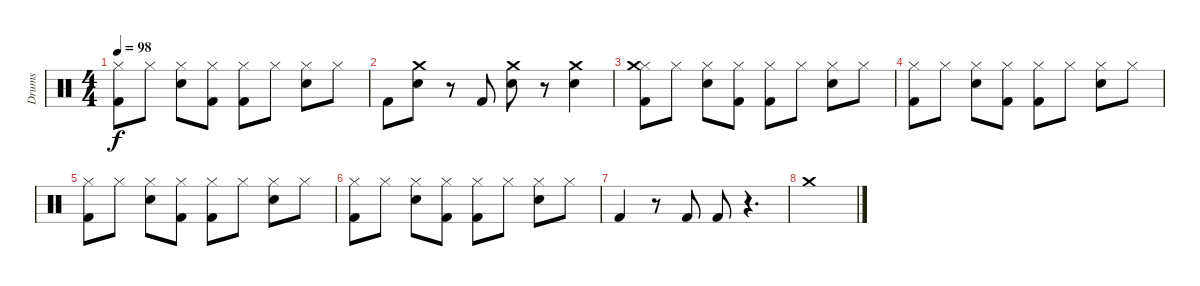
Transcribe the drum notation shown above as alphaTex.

\track ("Drums" "Drums") {instrument percussion}
\staff {score}
\articulation defaults
\ts (4 4)
\tempo 98
\clef neutral
\ks c
("Hi-Hat (closed)" "Kick (hit) 2").8{dy f} "Hi-Hat (closed)".8 ("Hi-Hat (closed)" "Electric Snare (hit)").8 ("Hi-Hat (closed)" "Kick (hit) 2").8 ("Hi-Hat (closed)" "Kick (hit) 2").8 "Hi-Hat (closed)".8 ("Hi-Hat (closed)" "Electric Snare (hit)").8 "Hi-Hat (closed)".8 |
"Kick (hit) 2".8 ("Crash medium (hit)" "Electric Snare (hit)").8 r.8 "Kick (hit) 2".8 ("Crash medium (hit)" "Electric Snare (hit)").8 r.8 ("Crash medium (hit)" "Electric Snare (hit)").4 |
("Hi-Hat (closed)" "Crash medium (hit)" "Kick (hit) 2").8 "Hi-Hat (closed)".8 ("Hi-Hat (closed)" "Electric Snare (hit)").8 ("Hi-Hat (closed)" "Kick (hit) 2").8 ("Hi-Hat (closed)" "Kick (hit) 2").8 "Hi-Hat (closed)".8 ("Hi-Hat (closed)" "Electric Snare (hit)").8 "Hi-Hat (closed)".8 |
("Hi-Hat (closed)" "Kick (hit) 2").8 "Hi-Hat (closed)".8 ("Hi-Hat (closed)" "Electric Snare (hit)").8 ("Hi-Hat (closed)" "Kick (hit) 2").8 ("Hi-Hat (closed)" "Kick (hit) 2").8 "Hi-Hat (closed)".8 ("Hi-Hat (closed)" "Electric Snare (hit)").8 "Hi-Hat (closed)".8 |
("Hi-Hat (closed)" "Kick (hit) 2").8 "Hi-Hat (closed)".8 ("Hi-Hat (closed)" "Electric Snare (hit)").8 ("Hi-Hat (closed)" "Kick (hit) 2").8 ("Hi-Hat (closed)" "Kick (hit) 2").8 "Hi-Hat (closed)".8 ("Hi-Hat (closed)" "Electric Snare (hit)").8 "Hi-Hat (closed)".8 |
("Hi-Hat (closed)" "Kick (hit) 2").8 "Hi-Hat (closed)".8 ("Hi-Hat (closed)" "Electric Snare (hit)").8 ("Hi-Hat (closed)" "Kick (hit) 2").8 ("Hi-Hat (closed)" "Kick (hit) 2").8 "Hi-Hat (closed)".8 ("Hi-Hat (closed)" "Electric Snare (hit)").8 "Hi-Hat (closed)".8 |
"Kick (hit) 2".4 r.8 "Kick (hit) 2".8 "Kick (hit) 2".8 r.4{d} |
"Crash medium (hit)".1
